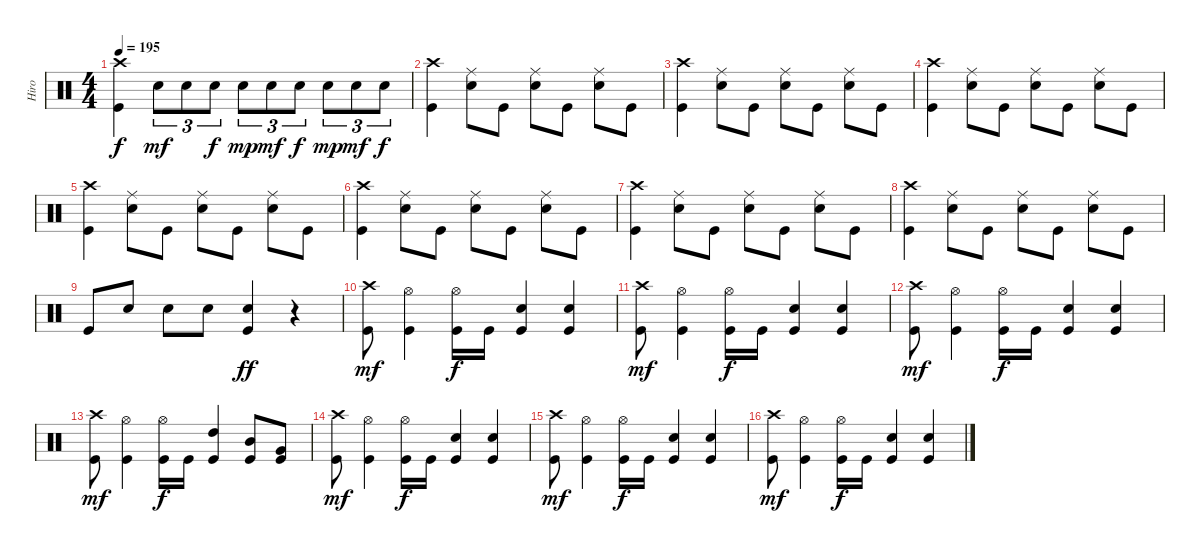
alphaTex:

\track ("Hiro" "Hiro") {instrument percussion}
\staff {score}
\articulation defaults
\ts (4 4)
\tempo 195
\clef neutral
\ks c
("Crash high (hit)" "Kick (hit)").4{dy f} "Snare (hit) 2".8{tu (3 2) dy mf} "Snare (hit) 2".8{tu (3 2)} "Snare (hit) 2".8{tu (3 2) dy f} "Snare (hit) 2".8{tu (3 2) dy mp} "Snare (hit) 2".8{tu (3 2) dy mf} "Snare (hit) 2".8{tu (3 2) dy f} "Snare (hit) 2".8{tu (3 2) dy mp} "Snare (hit) 2".8{tu (3 2) dy mf} "Snare (hit) 2".8{tu (3 2) dy f} |
("Crash high (hit)" "Kick (hit)").4 ("Snare (hit) 2" "Ride (middle)").8 "Kick (hit)".8 ("Snare (hit) 2" "Ride (middle)").8 "Kick (hit)".8 ("Snare (hit) 2" "Ride (middle)").8 "Kick (hit)".8 |
("Kick (hit)" "Crash high (hit)").4 ("Ride (middle)" "Snare (hit) 2").8 "Kick (hit)".8 ("Ride (middle)" "Snare (hit) 2").8 "Kick (hit)".8 ("Ride (middle)" "Snare (hit) 2").8 "Kick (hit)".8 |
("Kick (hit)" "Crash high (hit)").4 ("Ride (middle)" "Snare (hit) 2").8 "Kick (hit)".8 ("Ride (middle)" "Snare (hit) 2").8 "Kick (hit)".8 ("Ride (middle)" "Snare (hit) 2").8 "Kick (hit)".8 |
("Crash high (hit)" "Kick (hit)").4 ("Snare (hit) 2" "Ride (middle)").8 "Kick (hit)".8 ("Snare (hit) 2" "Ride (middle)").8 "Kick (hit)".8 ("Snare (hit) 2" "Ride (middle)").8 "Kick (hit)".8 |
("Kick (hit)" "Crash high (hit)").4 ("Ride (middle)" "Snare (hit) 2").8 "Kick (hit)".8 ("Ride (middle)" "Snare (hit) 2").8 "Kick (hit)".8 ("Ride (middle)" "Snare (hit) 2").8 "Kick (hit)".8 |
("Crash high (hit)" "Kick (hit)").4 ("Snare (hit) 2" "Ride (middle)").8 "Kick (hit)".8 ("Snare (hit) 2" "Ride (middle)").8 "Kick (hit)".8 ("Snare (hit) 2" "Ride (middle)").8 "Kick (hit)".8 |
("Kick (hit)" "Crash high (hit)").4 ("Ride (middle)" "Snare (hit) 2").8 "Kick (hit)".8 ("Ride (middle)" "Snare (hit) 2").8 "Kick (hit)".8 ("Ride (middle)" "Snare (hit) 2").8 "Kick (hit)".8 |
"Kick (hit)".8 "Snare (hit) 2".8 "Snare (hit) 2".8 "Snare (hit) 2".8 ("Snare (hit) 2" "Kick (hit)").4{dy ff} r.4 |
("Crash high (hit)" "Kick (hit)").8{dy mf} ("Hi-Hat (open)" "Kick (hit)").4 ("Kick (hit)" "Hi-Hat (open)").16{dy f} "Kick (hit)".16 ("Kick (hit)" "Electric Snare (hit)").4 ("Kick (hit)" "Electric Snare (hit)").4 |
("Crash high (hit)" "Kick (hit)").8{dy mf} ("Hi-Hat (open)" "Kick (hit)").4 ("Kick (hit)" "Hi-Hat (open)").16{dy f} "Kick (hit)".16 ("Kick (hit)" "Electric Snare (hit)").4 ("Kick (hit)" "Electric Snare (hit)").4 |
("Crash high (hit)" "Kick (hit)").8{dy mf} ("Hi-Hat (open)" "Kick (hit)").4 ("Kick (hit)" "Hi-Hat (open)").16{dy f} "Kick (hit)".16 ("Kick (hit)" "Electric Snare (hit)").4 ("Kick (hit)" "Electric Snare (hit)").4 |
("Crash high (hit)" "Kick (hit)").8{dy mf} ("Hi-Hat (open)" "Kick (hit)").4 ("Kick (hit)" "Hi-Hat (open)").16{dy f} "Kick (hit)".16 ("Kick (hit)" "High Tom (hit)").4 ("Kick (hit)" "Mid Tom (hit)").8 ("Kick (hit)" "Very Low Tom (hit)").8 |
("Crash high (hit)" "Kick (hit)").8{dy mf} ("Hi-Hat (open)" "Kick (hit)").4 ("Kick (hit)" "Hi-Hat (open)").16{dy f} "Kick (hit)".16 ("Kick (hit)" "Electric Snare (hit)").4 ("Kick (hit)" "Electric Snare (hit)").4 |
("Crash high (hit)" "Kick (hit)").8{dy mf} ("Hi-Hat (open)" "Kick (hit)").4 ("Kick (hit)" "Hi-Hat (open)").16{dy f} "Kick (hit)".16 ("Kick (hit)" "Electric Snare (hit)").4 ("Kick (hit)" "Electric Snare (hit)").4 |
("Crash high (hit)" "Kick (hit)").8{dy mf} ("Hi-Hat (open)" "Kick (hit)").4 ("Kick (hit)" "Hi-Hat (open)").16{dy f} "Kick (hit)".16 ("Kick (hit)" "Electric Snare (hit)").4 ("Kick (hit)" "Electric Snare (hit)").4
